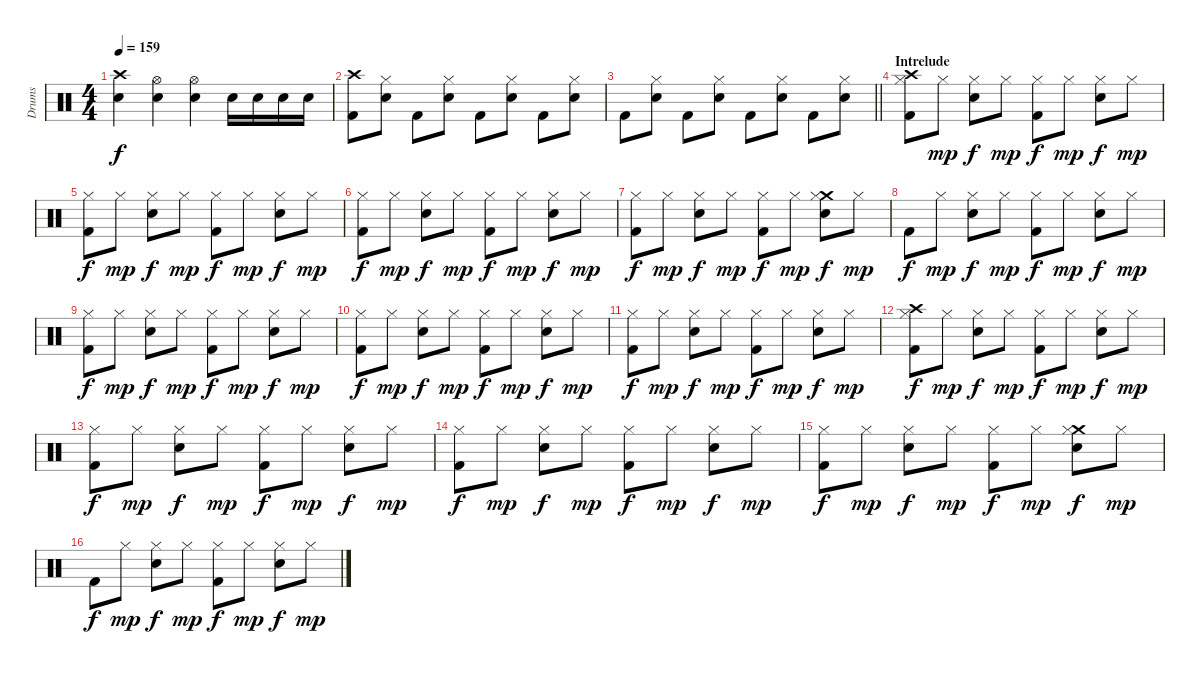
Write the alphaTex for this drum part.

\track ("Drums" "Drums") {instrument percussion}
\staff {score}
\articulation defaults
\ts (4 4)
\tempo 159
\clef neutral
\ks c
("Crash high (hit)" "Snare (hit) 2").4{dy f} ("Hi-Hat (open)" "Snare (hit) 2").4 ("Hi-Hat (open)" "Snare (hit) 2").4 "Snare (hit) 2".16 "Snare (hit) 2".16 "Snare (hit) 2".16 "Snare (hit) 2".16 |
("Crash high (hit)" "Kick (hit) 2").8 ("Hi-Hat (closed)" "Snare (hit) 2").8 "Kick (hit) 2".8 ("Hi-Hat (closed)" "Snare (hit) 2").8 "Kick (hit) 2".8 ("Hi-Hat (closed)" "Snare (hit) 2").8 "Kick (hit) 2".8 ("Hi-Hat (closed)" "Snare (hit) 2").8 |
\barLineRight lightlight "Kick (hit) 2".8
("Hi-Hat (closed)" "Snare (hit) 2").8 "Kick (hit) 2".8 ("Hi-Hat (closed)" "Snare (hit) 2").8 "Kick (hit) 2".8 ("Hi-Hat (closed)" "Snare (hit) 2").8 "Kick (hit) 2".8 ("Hi-Hat (closed)" "Snare (hit) 2").8 |
\section ("" "Intrelude")
("Crash high (hit)" "Hi-Hat (closed)" "Kick (hit) 2").8 "Hi-Hat (closed)".8{dy mp} ("Hi-Hat (closed)" "Snare (hit) 2").8{dy f} "Hi-Hat (closed)".8{dy mp} ("Hi-Hat (closed)" "Kick (hit) 2").8{dy f} "Hi-Hat (closed)".8{dy mp} ("Hi-Hat (closed)" "Snare (hit) 2").8{dy f} "Hi-Hat (closed)".8{dy mp} |
("Hi-Hat (closed)" "Kick (hit) 2").8{dy f} "Hi-Hat (closed)".8{dy mp} ("Hi-Hat (closed)" "Snare (hit) 2").8{dy f} "Hi-Hat (closed)".8{dy mp} ("Hi-Hat (closed)" "Kick (hit) 2").8{dy f} "Hi-Hat (closed)".8{dy mp} ("Hi-Hat (closed)" "Snare (hit) 2").8{dy f} "Hi-Hat (closed)".8{dy mp} |
("Hi-Hat (closed)" "Kick (hit) 2").8{dy f} "Hi-Hat (closed)".8{dy mp} ("Hi-Hat (closed)" "Snare (hit) 2").8{dy f} "Hi-Hat (closed)".8{dy mp} ("Hi-Hat (closed)" "Kick (hit) 2").8{dy f} "Hi-Hat (closed)".8{dy mp} ("Hi-Hat (closed)" "Snare (hit) 2").8{dy f} "Hi-Hat (closed)".8{dy mp} |
("Hi-Hat (closed)" "Kick (hit) 2").8{dy f} "Hi-Hat (closed)".8{dy mp} ("Hi-Hat (closed)" "Snare (hit) 2").8{dy f} "Hi-Hat (closed)".8{dy mp} ("Hi-Hat (closed)" "Kick (hit) 2").8{dy f} "Hi-Hat (closed)".8{dy mp} ("Crash medium (hit)" "Hi-Hat (closed)" "Snare (hit) 2").8{dy f} "Hi-Hat (closed)".8{dy mp} |
"Kick (hit) 2".8{dy f} "Hi-Hat (closed)".8{dy mp} ("Hi-Hat (closed)" "Snare (hit) 2").8{dy f} "Hi-Hat (closed)".8{dy mp} ("Hi-Hat (closed)" "Kick (hit) 2").8{dy f} "Hi-Hat (closed)".8{dy mp} ("Hi-Hat (closed)" "Snare (hit) 2").8{dy f} "Hi-Hat (closed)".8{dy mp} |
("Hi-Hat (closed)" "Kick (hit) 2").8{dy f} "Hi-Hat (closed)".8{dy mp} ("Hi-Hat (closed)" "Snare (hit) 2").8{dy f} "Hi-Hat (closed)".8{dy mp} ("Hi-Hat (closed)" "Kick (hit) 2").8{dy f} "Hi-Hat (closed)".8{dy mp} ("Hi-Hat (closed)" "Snare (hit) 2").8{dy f} "Hi-Hat (closed)".8{dy mp} |
("Hi-Hat (closed)" "Kick (hit) 2").8{dy f} "Hi-Hat (closed)".8{dy mp} ("Hi-Hat (closed)" "Snare (hit) 2").8{dy f} "Hi-Hat (closed)".8{dy mp} ("Hi-Hat (closed)" "Kick (hit) 2").8{dy f} "Hi-Hat (closed)".8{dy mp} ("Hi-Hat (closed)" "Snare (hit) 2").8{dy f} "Hi-Hat (closed)".8{dy mp} |
("Hi-Hat (closed)" "Kick (hit) 2").8{dy f} "Hi-Hat (closed)".8{dy mp} ("Hi-Hat (closed)" "Snare (hit) 2").8{dy f} "Hi-Hat (closed)".8{dy mp} ("Hi-Hat (closed)" "Kick (hit) 2").8{dy f} "Hi-Hat (closed)".8{dy mp} ("Hi-Hat (closed)" "Snare (hit) 2").8{dy f} "Hi-Hat (closed)".8{dy mp} |
("Crash high (hit)" "Hi-Hat (closed)" "Kick (hit) 2").8{dy f} "Hi-Hat (closed)".8{dy mp} ("Hi-Hat (closed)" "Snare (hit) 2").8{dy f} "Hi-Hat (closed)".8{dy mp} ("Hi-Hat (closed)" "Kick (hit) 2").8{dy f} "Hi-Hat (closed)".8{dy mp} ("Hi-Hat (closed)" "Snare (hit) 2").8{dy f} "Hi-Hat (closed)".8{dy mp} |
("Hi-Hat (closed)" "Kick (hit) 2").8{dy f} "Hi-Hat (closed)".8{dy mp} ("Hi-Hat (closed)" "Snare (hit) 2").8{dy f} "Hi-Hat (closed)".8{dy mp} ("Hi-Hat (closed)" "Kick (hit) 2").8{dy f} "Hi-Hat (closed)".8{dy mp} ("Hi-Hat (closed)" "Snare (hit) 2").8{dy f} "Hi-Hat (closed)".8{dy mp} |
("Hi-Hat (closed)" "Kick (hit) 2").8{dy f} "Hi-Hat (closed)".8{dy mp} ("Hi-Hat (closed)" "Snare (hit) 2").8{dy f} "Hi-Hat (closed)".8{dy mp} ("Hi-Hat (closed)" "Kick (hit) 2").8{dy f} "Hi-Hat (closed)".8{dy mp} ("Hi-Hat (closed)" "Snare (hit) 2").8{dy f} "Hi-Hat (closed)".8{dy mp} |
("Hi-Hat (closed)" "Kick (hit) 2").8{dy f} "Hi-Hat (closed)".8{dy mp} ("Hi-Hat (closed)" "Snare (hit) 2").8{dy f} "Hi-Hat (closed)".8{dy mp} ("Hi-Hat (closed)" "Kick (hit) 2").8{dy f} "Hi-Hat (closed)".8{dy mp} ("Crash medium (hit)" "Hi-Hat (closed)" "Snare (hit) 2").8{dy f} "Hi-Hat (closed)".8{dy mp} |
"Kick (hit) 2".8{dy f} "Hi-Hat (closed)".8{dy mp} ("Hi-Hat (closed)" "Snare (hit) 2").8{dy f} "Hi-Hat (closed)".8{dy mp} ("Hi-Hat (closed)" "Kick (hit) 2").8{dy f} "Hi-Hat (closed)".8{dy mp} ("Hi-Hat (closed)" "Snare (hit) 2").8{dy f} "Hi-Hat (closed)".8{dy mp}
